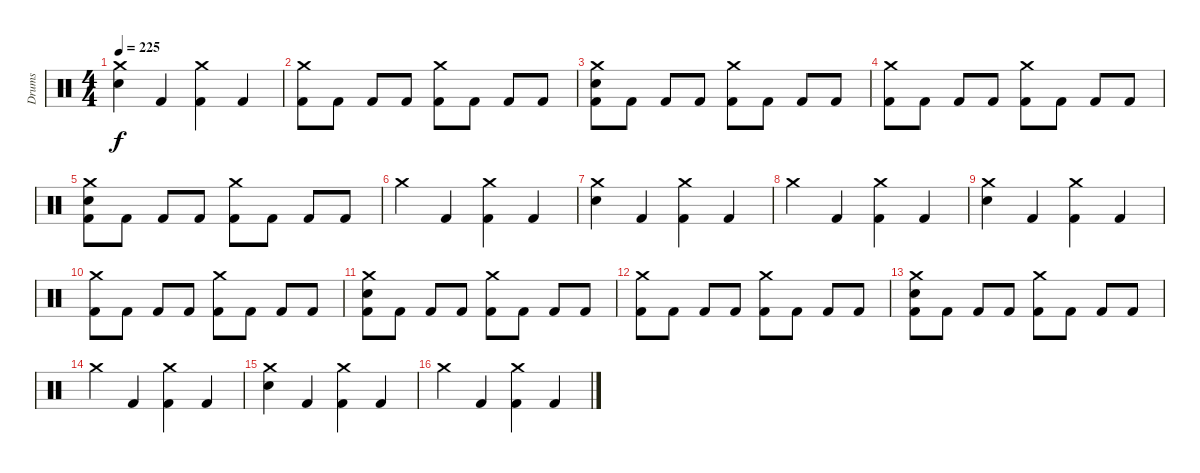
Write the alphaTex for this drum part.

\track ("Drums" "Drums") {instrument percussion}
\staff {score}
\articulation defaults
\ts (4 4)
\tempo 225
\clef neutral
\ks c
("Crash medium (hit)" "Electric Snare (hit)").4{dy f} "Kick (hit) 2".4 ("Crash medium (hit)" "Kick (hit) 2").4 "Kick (hit) 2".4 |
("Crash medium (hit)" "Kick (hit) 2").8 "Kick (hit) 2".8 "Kick (hit) 2".8 "Kick (hit) 2".8 ("Crash medium (hit)" "Kick (hit) 2").8 "Kick (hit) 2".8 "Kick (hit) 2".8 "Kick (hit) 2".8 |
("Crash medium (hit)" "Electric Snare (hit)" "Kick (hit) 2").8 "Kick (hit) 2".8 "Kick (hit) 2".8 "Kick (hit) 2".8 ("Crash medium (hit)" "Kick (hit) 2").8 "Kick (hit) 2".8 "Kick (hit) 2".8 "Kick (hit) 2".8 |
("Crash medium (hit)" "Kick (hit) 2").8 "Kick (hit) 2".8 "Kick (hit) 2".8 "Kick (hit) 2".8 ("Crash medium (hit)" "Kick (hit) 2").8 "Kick (hit) 2".8 "Kick (hit) 2".8 "Kick (hit) 2".8 |
("Crash medium (hit)" "Electric Snare (hit)" "Kick (hit) 2").8 "Kick (hit) 2".8 "Kick (hit) 2".8 "Kick (hit) 2".8 ("Crash medium (hit)" "Kick (hit) 2").8 "Kick (hit) 2".8 "Kick (hit) 2".8 "Kick (hit) 2".8 |
"Crash medium (hit)".4 "Kick (hit) 2".4 ("Crash medium (hit)" "Kick (hit) 2").4 "Kick (hit) 2".4 |
("Crash medium (hit)" "Electric Snare (hit)").4 "Kick (hit) 2".4 ("Crash medium (hit)" "Kick (hit) 2").4 "Kick (hit) 2".4 |
"Crash medium (hit)".4 "Kick (hit) 2".4 ("Crash medium (hit)" "Kick (hit) 2").4 "Kick (hit) 2".4 |
("Crash medium (hit)" "Electric Snare (hit)").4 "Kick (hit) 2".4 ("Crash medium (hit)" "Kick (hit) 2").4 "Kick (hit) 2".4 |
("Crash medium (hit)" "Kick (hit) 2").8 "Kick (hit) 2".8 "Kick (hit) 2".8 "Kick (hit) 2".8 ("Crash medium (hit)" "Kick (hit) 2").8 "Kick (hit) 2".8 "Kick (hit) 2".8 "Kick (hit) 2".8 |
("Crash medium (hit)" "Electric Snare (hit)" "Kick (hit) 2").8 "Kick (hit) 2".8 "Kick (hit) 2".8 "Kick (hit) 2".8 ("Crash medium (hit)" "Kick (hit) 2").8 "Kick (hit) 2".8 "Kick (hit) 2".8 "Kick (hit) 2".8 |
("Crash medium (hit)" "Kick (hit) 2").8 "Kick (hit) 2".8 "Kick (hit) 2".8 "Kick (hit) 2".8 ("Crash medium (hit)" "Kick (hit) 2").8 "Kick (hit) 2".8 "Kick (hit) 2".8 "Kick (hit) 2".8 |
("Crash medium (hit)" "Electric Snare (hit)" "Kick (hit) 2").8 "Kick (hit) 2".8 "Kick (hit) 2".8 "Kick (hit) 2".8 ("Crash medium (hit)" "Kick (hit) 2").8 "Kick (hit) 2".8 "Kick (hit) 2".8 "Kick (hit) 2".8 |
"Crash medium (hit)".4 "Kick (hit) 2".4 ("Crash medium (hit)" "Kick (hit) 2").4 "Kick (hit) 2".4 |
("Crash medium (hit)" "Electric Snare (hit)").4 "Kick (hit) 2".4 ("Crash medium (hit)" "Kick (hit) 2").4 "Kick (hit) 2".4 |
"Crash medium (hit)".4 "Kick (hit) 2".4 ("Crash medium (hit)" "Kick (hit) 2").4 "Kick (hit) 2".4
